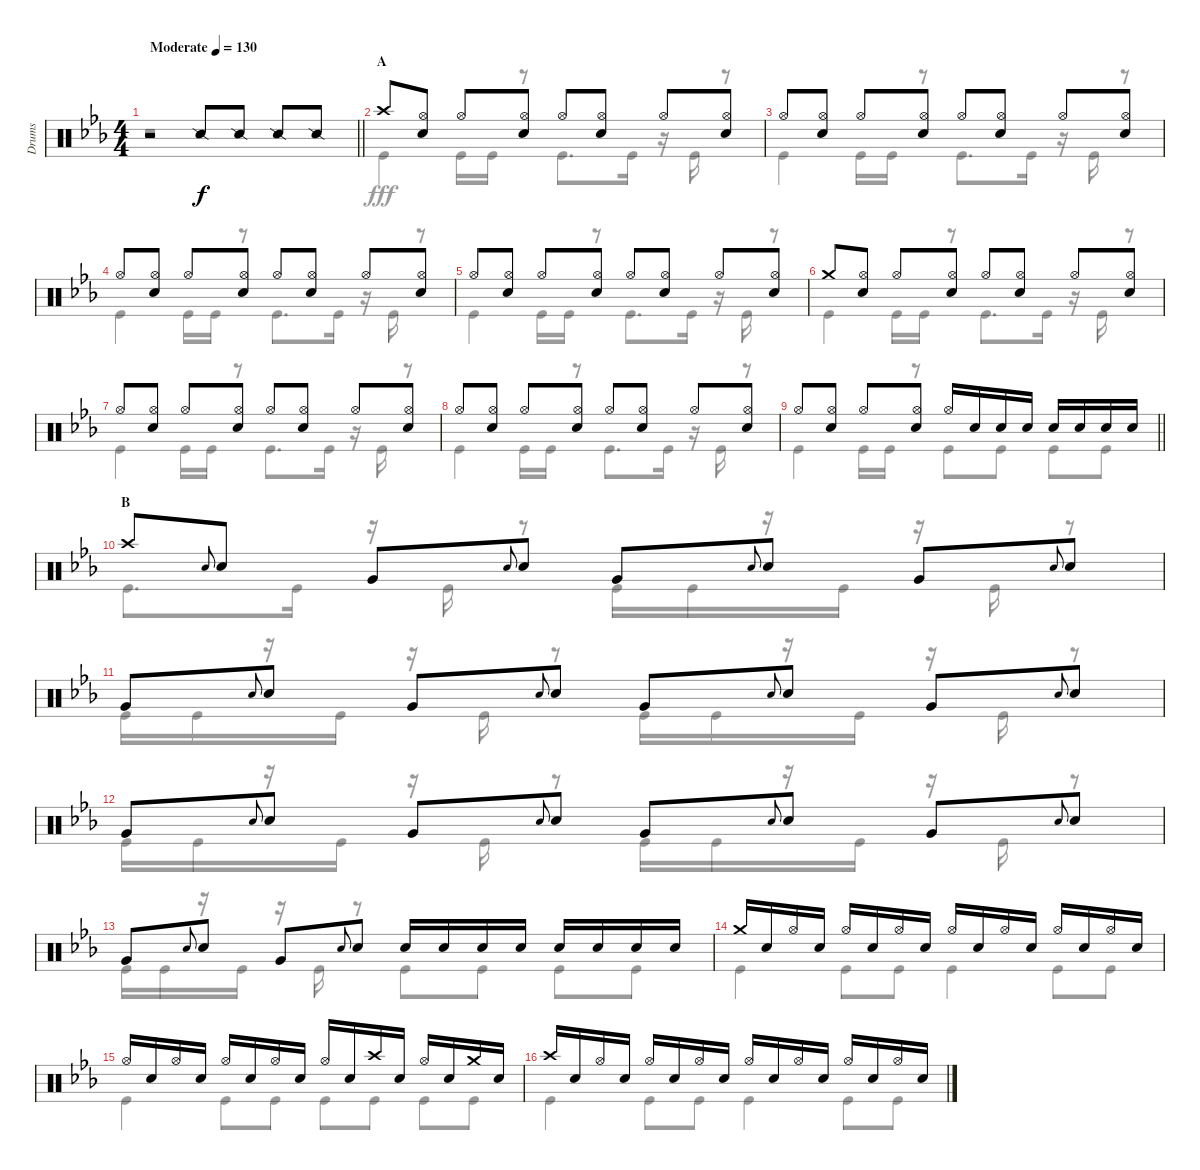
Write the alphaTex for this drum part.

\track ("Drums" "Drums") {instrument percussion}
\staff {score}
\articulation defaults
\voice
\ts (4 4)
\tempo (130 "Moderate")
\clef neutral
\barLineRight lightlight
\ks eb
r.2{dy f} "Snare (side stick) 2".8 "Snare (side stick) 2".8 "Snare (side stick) 2".8 "Snare (side stick) 2".8 |
\section ("" "A")
"Crash high (hit)".8 ("Hi-Hat (open)" "Snare (hit) 2").8 "Hi-Hat (open)".8 ("Hi-Hat (open)" "Snare (hit) 2").8 "Hi-Hat (open)".8 ("Hi-Hat (open)" "Snare (hit) 2").8 "Hi-Hat (open)".8 ("Hi-Hat (open)" "Snare (hit) 2").8 |
"Hi-Hat (open)".8 ("Hi-Hat (open)" "Snare (hit) 2").8 "Hi-Hat (open)".8 ("Hi-Hat (open)" "Snare (hit) 2").8 "Hi-Hat (open)".8 ("Hi-Hat (open)" "Snare (hit) 2").8 "Hi-Hat (open)".8 ("Hi-Hat (open)" "Snare (hit) 2").8 |
"Hi-Hat (open)".8 ("Hi-Hat (open)" "Snare (hit) 2").8 "Hi-Hat (open)".8 ("Hi-Hat (open)" "Snare (hit) 2").8 "Hi-Hat (open)".8 ("Hi-Hat (open)" "Snare (hit) 2").8 "Hi-Hat (open)".8 ("Hi-Hat (open)" "Snare (hit) 2").8 |
"Hi-Hat (open)".8 ("Hi-Hat (open)" "Snare (hit) 2").8 "Hi-Hat (open)".8 ("Hi-Hat (open)" "Snare (hit) 2").8 "Hi-Hat (open)".8 ("Hi-Hat (open)" "Snare (hit) 2").8 "Hi-Hat (open)".8 ("Hi-Hat (open)" "Snare (hit) 2").8 |
"Crash medium (hit)".8 ("Hi-Hat (open)" "Snare (hit) 2").8 "Hi-Hat (open)".8 ("Hi-Hat (open)" "Snare (hit) 2").8 "Hi-Hat (open)".8 ("Hi-Hat (open)" "Snare (hit) 2").8 "Hi-Hat (open)".8 ("Hi-Hat (open)" "Snare (hit) 2").8 |
"Hi-Hat (open)".8 ("Hi-Hat (open)" "Snare (hit) 2").8 "Hi-Hat (open)".8 ("Hi-Hat (open)" "Snare (hit) 2").8 "Hi-Hat (open)".8 ("Hi-Hat (open)" "Snare (hit) 2").8 "Hi-Hat (open)".8 ("Hi-Hat (open)" "Snare (hit) 2").8 |
"Hi-Hat (open)".8 ("Hi-Hat (open)" "Snare (hit) 2").8 "Hi-Hat (open)".8 ("Hi-Hat (open)" "Snare (hit) 2").8 "Hi-Hat (open)".8 ("Hi-Hat (open)" "Snare (hit) 2").8 "Hi-Hat (open)".8 ("Hi-Hat (open)" "Snare (hit) 2").8 |
\barLineRight lightlight "Hi-Hat (open)".8
("Hi-Hat (open)" "Snare (hit) 2").8 "Hi-Hat (open)".8 ("Hi-Hat (open)" "Snare (hit) 2").8 "Hi-Hat (open)".16 "Snare (hit) 2".16 "Snare (hit) 2".16 "Snare (hit) 2".16 "Snare (hit) 2".16 "Snare (hit) 2".16 "Snare (hit) 2".16 "Snare (hit) 2".16 |
\section ("" "B")
"Crash high (hit)".8 "Snare (hit) 2".8{gr onbeat} "Snare (hit) 2".8 "Very Low Tom (hit)".8 "Snare (hit) 2".8{gr onbeat} "Snare (hit) 2".8 "Very Low Tom (hit)".8 "Snare (hit) 2".8{gr onbeat} "Snare (hit) 2".8 "Very Low Tom (hit)".8 "Snare (hit) 2".8{gr onbeat} "Snare (hit) 2".8 |
"Very Low Tom (hit)".8 "Snare (hit) 2".8{gr onbeat} "Snare (hit) 2".8 "Very Low Tom (hit)".8 "Snare (hit) 2".8{gr onbeat} "Snare (hit) 2".8 "Very Low Tom (hit)".8 "Snare (hit) 2".8{gr onbeat} "Snare (hit) 2".8 "Very Low Tom (hit)".8 "Snare (hit) 2".8{gr onbeat} "Snare (hit) 2".8 |
"Very Low Tom (hit)".8 "Snare (hit) 2".8{gr onbeat} "Snare (hit) 2".8 "Very Low Tom (hit)".8 "Snare (hit) 2".8{gr onbeat} "Snare (hit) 2".8 "Very Low Tom (hit)".8 "Snare (hit) 2".8{gr onbeat} "Snare (hit) 2".8 "Very Low Tom (hit)".8 "Snare (hit) 2".8{gr onbeat} "Snare (hit) 2".8 |
"Very Low Tom (hit)".8 "Snare (hit) 2".8{gr onbeat} "Snare (hit) 2".8 "Very Low Tom (hit)".8 "Snare (hit) 2".8{gr onbeat} "Snare (hit) 2".8 "Snare (hit) 2".16 "Snare (hit) 2".16 "Snare (hit) 2".16 "Snare (hit) 2".16 "Snare (hit) 2".16 "Snare (hit) 2".16 "Snare (hit) 2".16 "Snare (hit) 2".16 |
"Crash medium (hit)".16 "Snare (hit) 2".16 "Hi-Hat (open)".16 "Snare (hit) 2".16 "Hi-Hat (open)".16 "Snare (hit) 2".16 "Hi-Hat (open)".16 "Snare (hit) 2".16 "Hi-Hat (open)".16 "Snare (hit) 2".16 "Hi-Hat (open)".16 "Snare (hit) 2".16 "Hi-Hat (open)".16 "Snare (hit) 2".16 "Hi-Hat (open)".16 "Snare (hit) 2".16 |
"Hi-Hat (open)".16 "Snare (hit) 2".16 "Hi-Hat (open)".16 "Snare (hit) 2".16 "Hi-Hat (open)".16 "Snare (hit) 2".16 "Hi-Hat (open)".16 "Snare (hit) 2".16 "Hi-Hat (open)".16 "Snare (hit) 2".16 "Crash high (hit)".16 "Snare (hit) 2".16 "Hi-Hat (open)".16 "Snare (hit) 2".16 "Crash medium (hit)".16 "Snare (hit) 2".16 |
"Crash high (hit)".16 "Snare (hit) 2".16 "Hi-Hat (open)".16 "Snare (hit) 2".16 "Hi-Hat (open)".16 "Snare (hit) 2".16 "Hi-Hat (open)".16 "Snare (hit) 2".16 "Hi-Hat (open)".16 "Snare (hit) 2".16 "Hi-Hat (open)".16 "Snare (hit) 2".16 "Hi-Hat (open)".16 "Snare (hit) 2".16 "Hi-Hat (open)".16 "Snare (hit) 2".16
\voice
\clef neutral
\ottava regular
\simile none
\barLineRight lightlight
\ks eb
r.1{dy fff} |
"Kick (hit)".4 "Kick (hit)".16 "Kick (hit)".16 r.8 "Kick (hit)".8{d} "Kick (hit)".16 r.16 "Kick (hit)".16 r.8 |
"Kick (hit)".4 "Kick (hit)".16 "Kick (hit)".16 r.8 "Kick (hit)".8{d} "Kick (hit)".16 r.16 "Kick (hit)".16 r.8 |
"Kick (hit)".4 "Kick (hit)".16 "Kick (hit)".16 r.8 "Kick (hit)".8{d} "Kick (hit)".16 r.16 "Kick (hit)".16 r.8 |
"Kick (hit)".4 "Kick (hit)".16 "Kick (hit)".16 r.8 "Kick (hit)".8{d} "Kick (hit)".16 r.16 "Kick (hit)".16 r.8 |
"Kick (hit)".4 "Kick (hit)".16 "Kick (hit)".16 r.8 "Kick (hit)".8{d} "Kick (hit)".16 r.16 "Kick (hit)".16 r.8 |
"Kick (hit)".4 "Kick (hit)".16 "Kick (hit)".16 r.8 "Kick (hit)".8{d} "Kick (hit)".16 r.16 "Kick (hit)".16 r.8 |
"Kick (hit)".4 "Kick (hit)".16 "Kick (hit)".16 r.8 "Kick (hit)".8{d} "Kick (hit)".16 r.16 "Kick (hit)".16 r.8 |
\barLineRight lightlight "Kick (hit)".4 "Kick (hit)".16 "Kick (hit)".16
r.8 "Kick (hit)".8 "Kick (hit)".8 "Kick (hit)".8 "Kick (hit)".8 |
"Kick (hit)".8{d} "Kick (hit)".16 r.16 "Kick (hit)".16 r.8 "Kick (hit)".16 "Kick (hit)".16 r.16 "Kick (hit)".16 r.16 "Kick (hit)".16 r.8 |
"Kick (hit)".16 "Kick (hit)".16 r.16 "Kick (hit)".16 r.16 "Kick (hit)".16 r.8 "Kick (hit)".16 "Kick (hit)".16 r.16 "Kick (hit)".16 r.16 "Kick (hit)".16 r.8 |
"Kick (hit)".16 "Kick (hit)".16 r.16 "Kick (hit)".16 r.16 "Kick (hit)".16 r.8 "Kick (hit)".16 "Kick (hit)".16 r.16 "Kick (hit)".16 r.16 "Kick (hit)".16 r.8 |
"Kick (hit)".16 "Kick (hit)".16 r.16 "Kick (hit)".16 r.16 "Kick (hit)".16 r.8 "Kick (hit)".8 "Kick (hit)".8 "Kick (hit)".8 "Kick (hit)".8 |
"Kick (hit)".4 "Kick (hit)".8 "Kick (hit)".8 "Kick (hit)".4 "Kick (hit)".8 "Kick (hit)".8 |
"Kick (hit)".4 "Kick (hit)".8 "Kick (hit)".8 "Kick (hit)".8 "Kick (hit)".8 "Kick (hit)".8 "Kick (hit)".8 |
"Kick (hit)".4 "Kick (hit)".8 "Kick (hit)".8 "Kick (hit)".4 "Kick (hit)".8 "Kick (hit)".8
